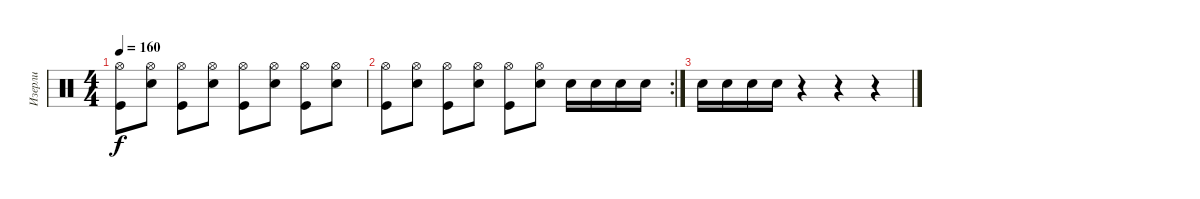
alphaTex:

\track ("Изерли" "Изерли") {instrument percussion}
\staff {score}
\articulation defaults
\ts (4 4)
\tempo 160
\clef neutral
\ks c
("Hi-Hat (open)" "Kick (hit)").8{dy f} ("Hi-Hat (open)" "Snare (hit) 2").8 ("Hi-Hat (open)" "Kick (hit)").8 ("Hi-Hat (open)" "Snare (hit) 2").8 ("Hi-Hat (open)" "Kick (hit)").8 ("Hi-Hat (open)" "Snare (hit) 2").8 ("Hi-Hat (open)" "Kick (hit)").8 ("Hi-Hat (open)" "Snare (hit) 2").8 |
\rc 2
("Hi-Hat (open)" "Kick (hit)").8 ("Hi-Hat (open)" "Snare (hit) 2").8 ("Hi-Hat (open)" "Kick (hit)").8 ("Hi-Hat (open)" "Snare (hit) 2").8 ("Hi-Hat (open)" "Kick (hit)").8 ("Hi-Hat (open)" "Snare (hit) 2").8 "Snare (hit) 2".16 "Snare (hit) 2".16 "Snare (hit) 2".16 "Snare (hit) 2".16 |
"Snare (hit) 2".16 "Snare (hit) 2".16 "Snare (hit) 2".16 "Snare (hit) 2".16 r.4 r.4 r.4
